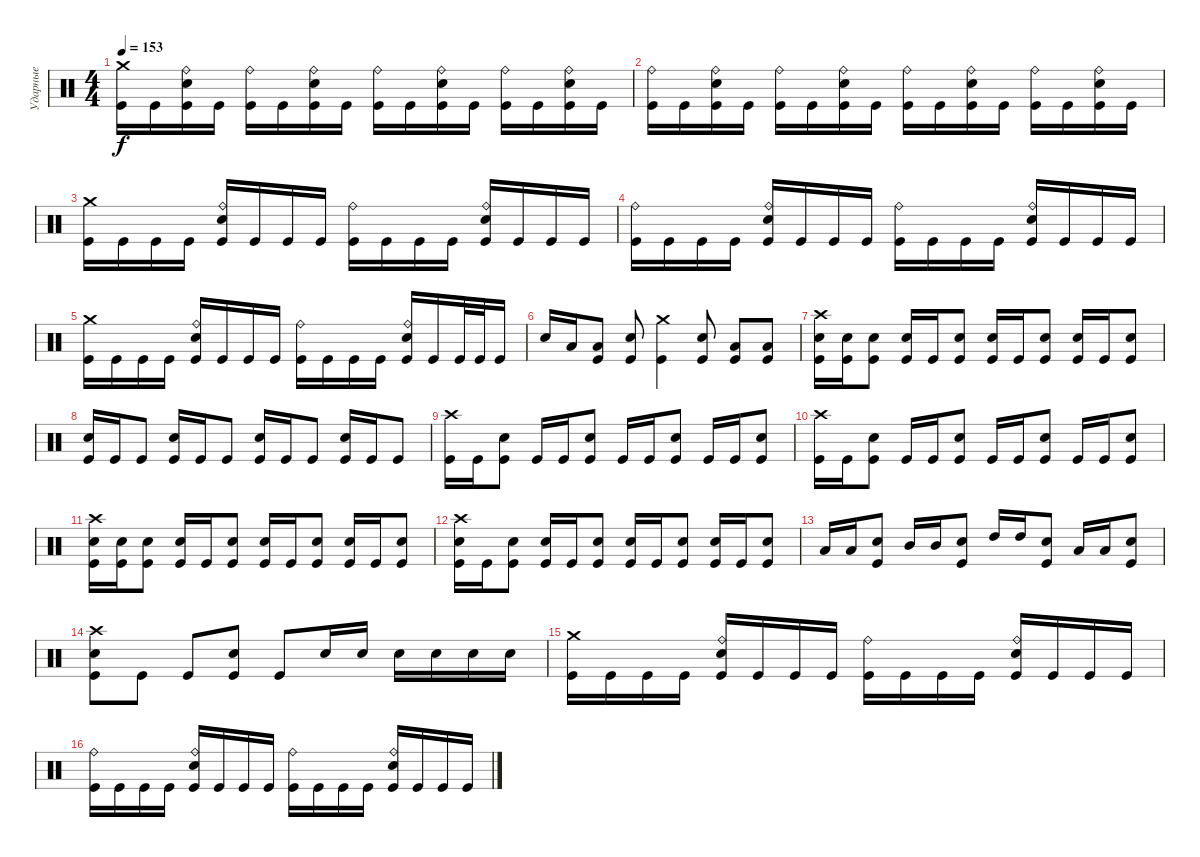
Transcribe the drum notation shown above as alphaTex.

\track ("Ударные" "Ударные") {instrument percussion}
\staff {score}
\articulation defaults
\ts (4 4)
\tempo 153
\clef neutral
\ks c
("Crash medium (hit)" "Kick (hit)").16{dy f} "Kick (hit)".16 ("Ride (bell)" "Electric Snare (hit)" "Kick (hit)").16 "Kick (hit)".16 ("Ride (bell)" "Kick (hit)").16 "Kick (hit)".16 ("Ride (bell)" "Electric Snare (hit)" "Kick (hit)").16 "Kick (hit)".16 ("Ride (bell)" "Kick (hit)").16 "Kick (hit)".16 ("Ride (bell)" "Electric Snare (hit)" "Kick (hit)").16 "Kick (hit)".16 ("Ride (bell)" "Kick (hit)").16 "Kick (hit)".16 ("Ride (bell)" "Electric Snare (hit)" "Kick (hit)").16 "Kick (hit)".16 |
("Ride (bell)" "Kick (hit)").16 "Kick (hit)".16 ("Ride (bell)" "Electric Snare (hit)" "Kick (hit)").16 "Kick (hit)".16 ("Ride (bell)" "Kick (hit)").16 "Kick (hit)".16 ("Ride (bell)" "Electric Snare (hit)" "Kick (hit)").16 "Kick (hit)".16 ("Ride (bell)" "Kick (hit)").16 "Kick (hit)".16 ("Ride (bell)" "Electric Snare (hit)" "Kick (hit)").16 "Kick (hit)".16 ("Ride (bell)" "Kick (hit)").16 "Kick (hit)".16 ("Ride (bell)" "Electric Snare (hit)" "Kick (hit)").16 "Kick (hit)".16 |
("Crash medium (hit)" "Kick (hit)").16 "Kick (hit)".16 "Kick (hit)".16 "Kick (hit)".16 ("Ride (bell)" "Electric Snare (hit)" "Kick (hit)").16 "Kick (hit)".16 "Kick (hit)".16 "Kick (hit)".16 ("Ride (bell)" "Kick (hit)").16 "Kick (hit)".16 "Kick (hit)".16 "Kick (hit)".16 ("Ride (bell)" "Electric Snare (hit)" "Kick (hit)").16 "Kick (hit)".16 "Kick (hit)".16 "Kick (hit)".16 |
("Ride (bell)" "Kick (hit)").16 "Kick (hit)".16 "Kick (hit)".16 "Kick (hit)".16 ("Ride (bell)" "Electric Snare (hit)" "Kick (hit)").16 "Kick (hit)".16 "Kick (hit)".16 "Kick (hit)".16 ("Ride (bell)" "Kick (hit)").16 "Kick (hit)".16 "Kick (hit)".16 "Kick (hit)".16 ("Ride (bell)" "Electric Snare (hit)" "Kick (hit)").16 "Kick (hit)".16 "Kick (hit)".16 "Kick (hit)".16 |
("Crash medium (hit)" "Kick (hit)").16 "Kick (hit)".16 "Kick (hit)".16 "Kick (hit)".16 ("Ride (bell)" "Electric Snare (hit)" "Kick (hit)").16 "Kick (hit)".16 "Kick (hit)".16 "Kick (hit)".16 ("Ride (bell)" "Kick (hit)").16 "Kick (hit)".16 "Kick (hit)".16 "Kick (hit)".16 ("Ride (bell)" "Electric Snare (hit)" "Kick (hit)").16 "Kick (hit)".16 "Kick (hit)".32 "Kick (hit)".32 "Kick (hit)".16 |
"Electric Snare (hit)".16 "Low Tom (hit)".16 ("Low Tom (hit)" "Kick (hit)").8 ("Electric Snare (hit)" "Kick (hit)").8 ("Crash medium (hit)" "Kick (hit)").4 ("Electric Snare (hit)" "Kick (hit)").8 ("Low Tom (hit)" "Kick (hit)").8 ("Low Tom (hit)" "Kick (hit)").8 |
("Crash high (hit)" "Electric Snare (hit)" "Kick (hit)").16 ("Electric Snare (hit)" "Kick (hit)").16 ("Electric Snare (hit)" "Kick (hit)").8 ("Electric Snare (hit)" "Kick (hit)").16 "Kick (hit)".16 ("Electric Snare (hit)" "Kick (hit)").8 ("Electric Snare (hit)" "Kick (hit)").16 "Kick (hit)".16 ("Electric Snare (hit)" "Kick (hit)").8 ("Electric Snare (hit)" "Kick (hit)").16 "Kick (hit)".16 ("Electric Snare (hit)" "Kick (hit)").8 |
("Electric Snare (hit)" "Kick (hit)").16 "Kick (hit)".16 "Kick (hit)".8 ("Electric Snare (hit)" "Kick (hit)").16 "Kick (hit)".16 "Kick (hit)".8 ("Electric Snare (hit)" "Kick (hit)").16 "Kick (hit)".16 "Kick (hit)".8 ("Electric Snare (hit)" "Kick (hit)").16 "Kick (hit)".16 "Kick (hit)".8 |
("Crash high (hit)" "Kick (hit)").16 "Kick (hit)".16 ("Electric Snare (hit)" "Kick (hit)").8 "Kick (hit)".16 "Kick (hit)".16 ("Electric Snare (hit)" "Kick (hit)").8 "Kick (hit)".16 "Kick (hit)".16 ("Electric Snare (hit)" "Kick (hit)").8 "Kick (hit)".16 "Kick (hit)".16 ("Electric Snare (hit)" "Kick (hit)").8 |
("Crash high (hit)" "Kick (hit)").16 "Kick (hit)".16 ("Electric Snare (hit)" "Kick (hit)").8 "Kick (hit)".16 "Kick (hit)".16 ("Electric Snare (hit)" "Kick (hit)").8 "Kick (hit)".16 "Kick (hit)".16 ("Electric Snare (hit)" "Kick (hit)").8 "Kick (hit)".16 "Kick (hit)".16 ("Electric Snare (hit)" "Kick (hit)").8 |
("Crash high (hit)" "Electric Snare (hit)" "Kick (hit)").16 ("Electric Snare (hit)" "Kick (hit)").16 ("Electric Snare (hit)" "Kick (hit)").8 ("Electric Snare (hit)" "Kick (hit)").16 "Kick (hit)".16 ("Electric Snare (hit)" "Kick (hit)").8 ("Electric Snare (hit)" "Kick (hit)").16 "Kick (hit)".16 ("Electric Snare (hit)" "Kick (hit)").8 ("Electric Snare (hit)" "Kick (hit)").16 "Kick (hit)".16 ("Electric Snare (hit)" "Kick (hit)").8 |
("Crash high (hit)" "Electric Snare (hit)" "Kick (hit)").16 "Kick (hit)".16 ("Electric Snare (hit)" "Kick (hit)").8 ("Electric Snare (hit)" "Kick (hit)").16 "Kick (hit)".16 ("Electric Snare (hit)" "Kick (hit)").8 ("Electric Snare (hit)" "Kick (hit)").16 "Kick (hit)".16 ("Electric Snare (hit)" "Kick (hit)").8 ("Electric Snare (hit)" "Kick (hit)").16 "Kick (hit)".16 ("Electric Snare (hit)" "Kick (hit)").8 |
"Low Tom (hit)".16 "Low Tom (hit)".16 ("Electric Snare (hit)" "Kick (hit)").8 "Mid Tom (hit)".16 "Mid Tom (hit)".16 ("Electric Snare (hit)" "Kick (hit)").8 "High Tom (hit)".16 "High Tom (hit)".16 ("Electric Snare (hit)" "Kick (hit)").8 "Low Tom (hit)".16 "Low Tom (hit)".16 ("Electric Snare (hit)" "Kick (hit)").8 |
("Crash high (hit)" "Electric Snare (hit)" "Kick (hit)").8 "Kick (hit)".8 "Kick (hit)".8 ("Electric Snare (hit)" "Kick (hit)").8 "Kick (hit)".8 "Electric Snare (hit)".16 "Electric Snare (hit)".16 "Electric Snare (hit)".16 "Electric Snare (hit)".16 "Electric Snare (hit)".16 "Electric Snare (hit)".16 |
("Crash medium (hit)" "Kick (hit)").16 "Kick (hit)".16 "Kick (hit)".16 "Kick (hit)".16 ("Ride (bell)" "Electric Snare (hit)" "Kick (hit)").16 "Kick (hit)".16 "Kick (hit)".16 "Kick (hit)".16 ("Ride (bell)" "Kick (hit)").16 "Kick (hit)".16 "Kick (hit)".16 "Kick (hit)".16 ("Ride (bell)" "Electric Snare (hit)" "Kick (hit)").16 "Kick (hit)".16 "Kick (hit)".16 "Kick (hit)".16 |
("Ride (bell)" "Kick (hit)").16 "Kick (hit)".16 "Kick (hit)".16 "Kick (hit)".16 ("Ride (bell)" "Electric Snare (hit)" "Kick (hit)").16 "Kick (hit)".16 "Kick (hit)".16 "Kick (hit)".16 ("Ride (bell)" "Kick (hit)").16 "Kick (hit)".16 "Kick (hit)".16 "Kick (hit)".16 ("Ride (bell)" "Electric Snare (hit)" "Kick (hit)").16 "Kick (hit)".16 "Kick (hit)".16 "Kick (hit)".16
